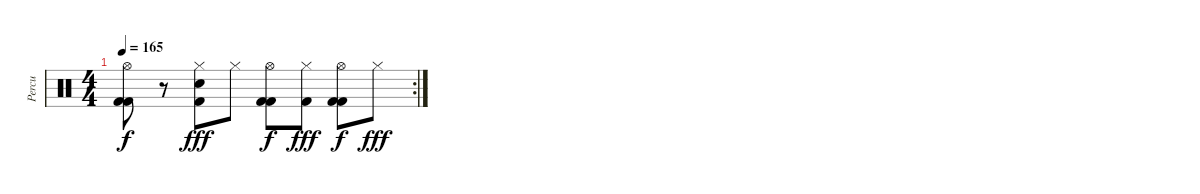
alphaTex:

\track ("Percu" "Percu") {instrument percussion}
\staff {score}
\articulation defaults
\rc 2
\ts (4 4)
\tempo 165
\clef neutral
\ks c
("Kick (hit) 2" "Hi-Hat (open)" "Kick (hit) 2").8{dy f} r.8 ("Hi-Hat (closed)" "Kick (hit) 2" "Snare (hit) 2").8{dy fff} "Hi-Hat (closed)".8 ("Kick (hit) 2" "Hi-Hat (open)" "Kick (hit) 2").8{dy f} ("Hi-Hat (closed)" "Kick (hit) 2").8{dy fff} ("Kick (hit) 2" "Hi-Hat (open)" "Kick (hit) 2").8{dy f} "Hi-Hat (closed)".8{dy fff}
